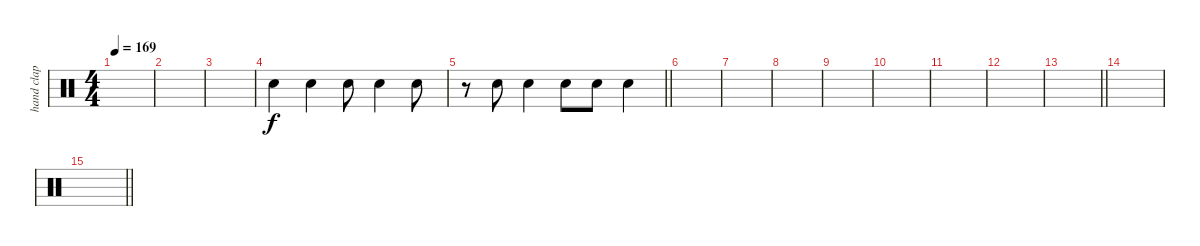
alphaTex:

\track ("hand clap" "hand clap") {instrument percussion}
\staff {score}
\articulation defaults
\ts (4 4)
\tempo 169
\clef neutral
\ks c
|
|
|
"Hand Clap (hit)".4 "Hand Clap (hit)".4 "Hand Clap (hit)".8 "Hand Clap (hit)".4 "Hand Clap (hit)".8 |
\barLineRight lightlight
r.8 "Hand Clap (hit)".8 "Hand Clap (hit)".4 "Hand Clap (hit)".8 "Hand Clap (hit)".8 "Hand Clap (hit)".4 |
|
|
|
|
|
|
|
\barLineRight lightlight
|
|
\barLineRight lightlight
